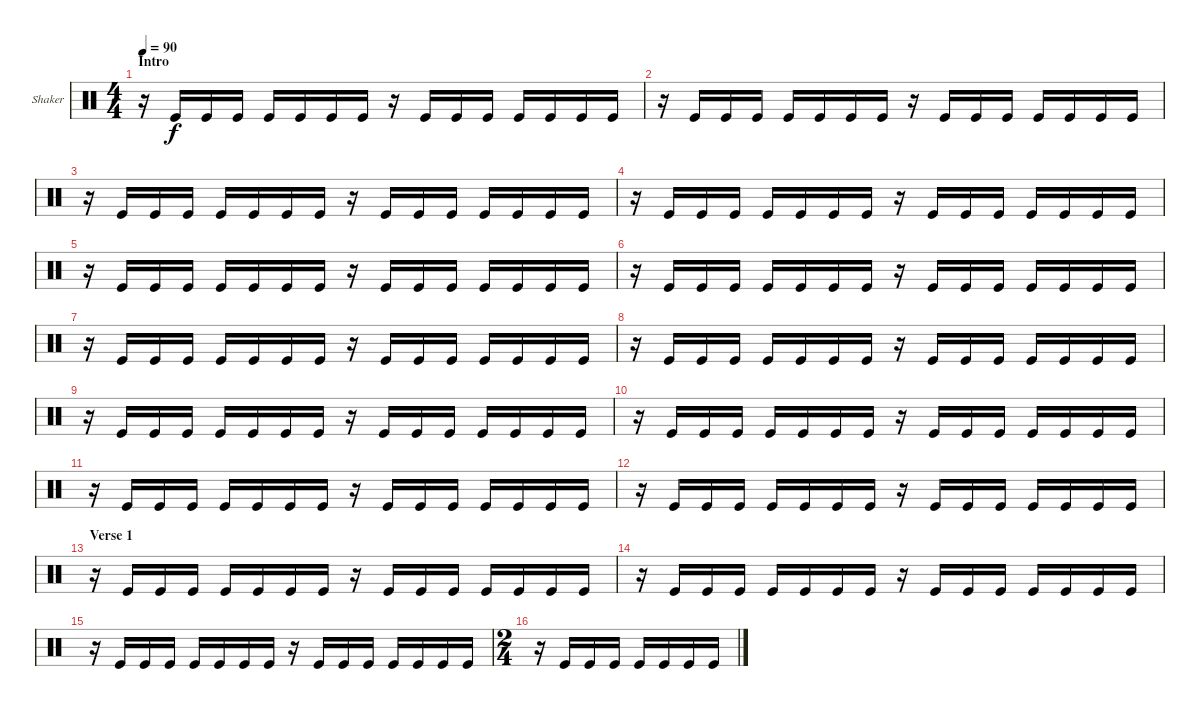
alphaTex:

\bracketExtendMode groupsimilarinstruments
\firstSystemTrackNameOrientation horizontal
\otherSystemsTrackNameOrientation horizontal
\track ("Shaker" "Shaker") {multiBarRest instrument percussion}
\staff {score}
\articulation defaults
\ts (4 4)
\beaming (8 2 2 2 2)
\section ("" "Intro")
\tempo 90
\clef neutral
\ks c
r.16{dy f} "Kick (hit)".16 "Kick (hit)".16 "Kick (hit)".16 "Kick (hit)".16 "Kick (hit)".16 "Kick (hit)".16 "Kick (hit)".16 r.16 "Kick (hit)".16 "Kick (hit)".16 "Kick (hit)".16 "Kick (hit)".16 "Kick (hit)".16 "Kick (hit)".16 "Kick (hit)".16 |
r.16 "Kick (hit)".16 "Kick (hit)".16 "Kick (hit)".16 "Kick (hit)".16 "Kick (hit)".16 "Kick (hit)".16 "Kick (hit)".16 r.16 "Kick (hit)".16 "Kick (hit)".16 "Kick (hit)".16 "Kick (hit)".16 "Kick (hit)".16 "Kick (hit)".16 "Kick (hit)".16 |
r.16 "Kick (hit)".16 "Kick (hit)".16 "Kick (hit)".16 "Kick (hit)".16 "Kick (hit)".16 "Kick (hit)".16 "Kick (hit)".16 r.16 "Kick (hit)".16 "Kick (hit)".16 "Kick (hit)".16 "Kick (hit)".16 "Kick (hit)".16 "Kick (hit)".16 "Kick (hit)".16 |
r.16 "Kick (hit)".16 "Kick (hit)".16 "Kick (hit)".16 "Kick (hit)".16 "Kick (hit)".16 "Kick (hit)".16 "Kick (hit)".16 r.16 "Kick (hit)".16 "Kick (hit)".16 "Kick (hit)".16 "Kick (hit)".16 "Kick (hit)".16 "Kick (hit)".16 "Kick (hit)".16 |
r.16 "Kick (hit)".16 "Kick (hit)".16 "Kick (hit)".16 "Kick (hit)".16 "Kick (hit)".16 "Kick (hit)".16 "Kick (hit)".16 r.16 "Kick (hit)".16 "Kick (hit)".16 "Kick (hit)".16 "Kick (hit)".16 "Kick (hit)".16 "Kick (hit)".16 "Kick (hit)".16 |
r.16 "Kick (hit)".16 "Kick (hit)".16 "Kick (hit)".16 "Kick (hit)".16 "Kick (hit)".16 "Kick (hit)".16 "Kick (hit)".16 r.16 "Kick (hit)".16 "Kick (hit)".16 "Kick (hit)".16 "Kick (hit)".16 "Kick (hit)".16 "Kick (hit)".16 "Kick (hit)".16 |
r.16 "Kick (hit)".16 "Kick (hit)".16 "Kick (hit)".16 "Kick (hit)".16 "Kick (hit)".16 "Kick (hit)".16 "Kick (hit)".16 r.16 "Kick (hit)".16 "Kick (hit)".16 "Kick (hit)".16 "Kick (hit)".16 "Kick (hit)".16 "Kick (hit)".16 "Kick (hit)".16 |
r.16 "Kick (hit)".16 "Kick (hit)".16 "Kick (hit)".16 "Kick (hit)".16 "Kick (hit)".16 "Kick (hit)".16 "Kick (hit)".16 r.16 "Kick (hit)".16 "Kick (hit)".16 "Kick (hit)".16 "Kick (hit)".16 "Kick (hit)".16 "Kick (hit)".16 "Kick (hit)".16 |
r.16 "Kick (hit)".16 "Kick (hit)".16 "Kick (hit)".16 "Kick (hit)".16 "Kick (hit)".16 "Kick (hit)".16 "Kick (hit)".16 r.16 "Kick (hit)".16 "Kick (hit)".16 "Kick (hit)".16 "Kick (hit)".16 "Kick (hit)".16 "Kick (hit)".16 "Kick (hit)".16 |
r.16 "Kick (hit)".16 "Kick (hit)".16 "Kick (hit)".16 "Kick (hit)".16 "Kick (hit)".16 "Kick (hit)".16 "Kick (hit)".16 r.16 "Kick (hit)".16 "Kick (hit)".16 "Kick (hit)".16 "Kick (hit)".16 "Kick (hit)".16 "Kick (hit)".16 "Kick (hit)".16 |
r.16 "Kick (hit)".16 "Kick (hit)".16 "Kick (hit)".16 "Kick (hit)".16 "Kick (hit)".16 "Kick (hit)".16 "Kick (hit)".16 r.16 "Kick (hit)".16 "Kick (hit)".16 "Kick (hit)".16 "Kick (hit)".16 "Kick (hit)".16 "Kick (hit)".16 "Kick (hit)".16 |
r.16 "Kick (hit)".16 "Kick (hit)".16 "Kick (hit)".16 "Kick (hit)".16 "Kick (hit)".16 "Kick (hit)".16 "Kick (hit)".16 r.16 "Kick (hit)".16 "Kick (hit)".16 "Kick (hit)".16 "Kick (hit)".16 "Kick (hit)".16 "Kick (hit)".16 "Kick (hit)".16 |
\section ("" "Verse 1")
r.16 "Kick (hit)".16 "Kick (hit)".16 "Kick (hit)".16 "Kick (hit)".16 "Kick (hit)".16 "Kick (hit)".16 "Kick (hit)".16 r.16 "Kick (hit)".16 "Kick (hit)".16 "Kick (hit)".16 "Kick (hit)".16 "Kick (hit)".16 "Kick (hit)".16 "Kick (hit)".16 |
r.16 "Kick (hit)".16 "Kick (hit)".16 "Kick (hit)".16 "Kick (hit)".16 "Kick (hit)".16 "Kick (hit)".16 "Kick (hit)".16 r.16 "Kick (hit)".16 "Kick (hit)".16 "Kick (hit)".16 "Kick (hit)".16 "Kick (hit)".16 "Kick (hit)".16 "Kick (hit)".16 |
r.16 "Kick (hit)".16 "Kick (hit)".16 "Kick (hit)".16 "Kick (hit)".16 "Kick (hit)".16 "Kick (hit)".16 "Kick (hit)".16 r.16 "Kick (hit)".16 "Kick (hit)".16 "Kick (hit)".16 "Kick (hit)".16 "Kick (hit)".16 "Kick (hit)".16 "Kick (hit)".16 |
\ts (2 4)
\beaming (8 2 2)
r.16 "Kick (hit)".16 "Kick (hit)".16 "Kick (hit)".16 "Kick (hit)".16 "Kick (hit)".16 "Kick (hit)".16 "Kick (hit)".16
